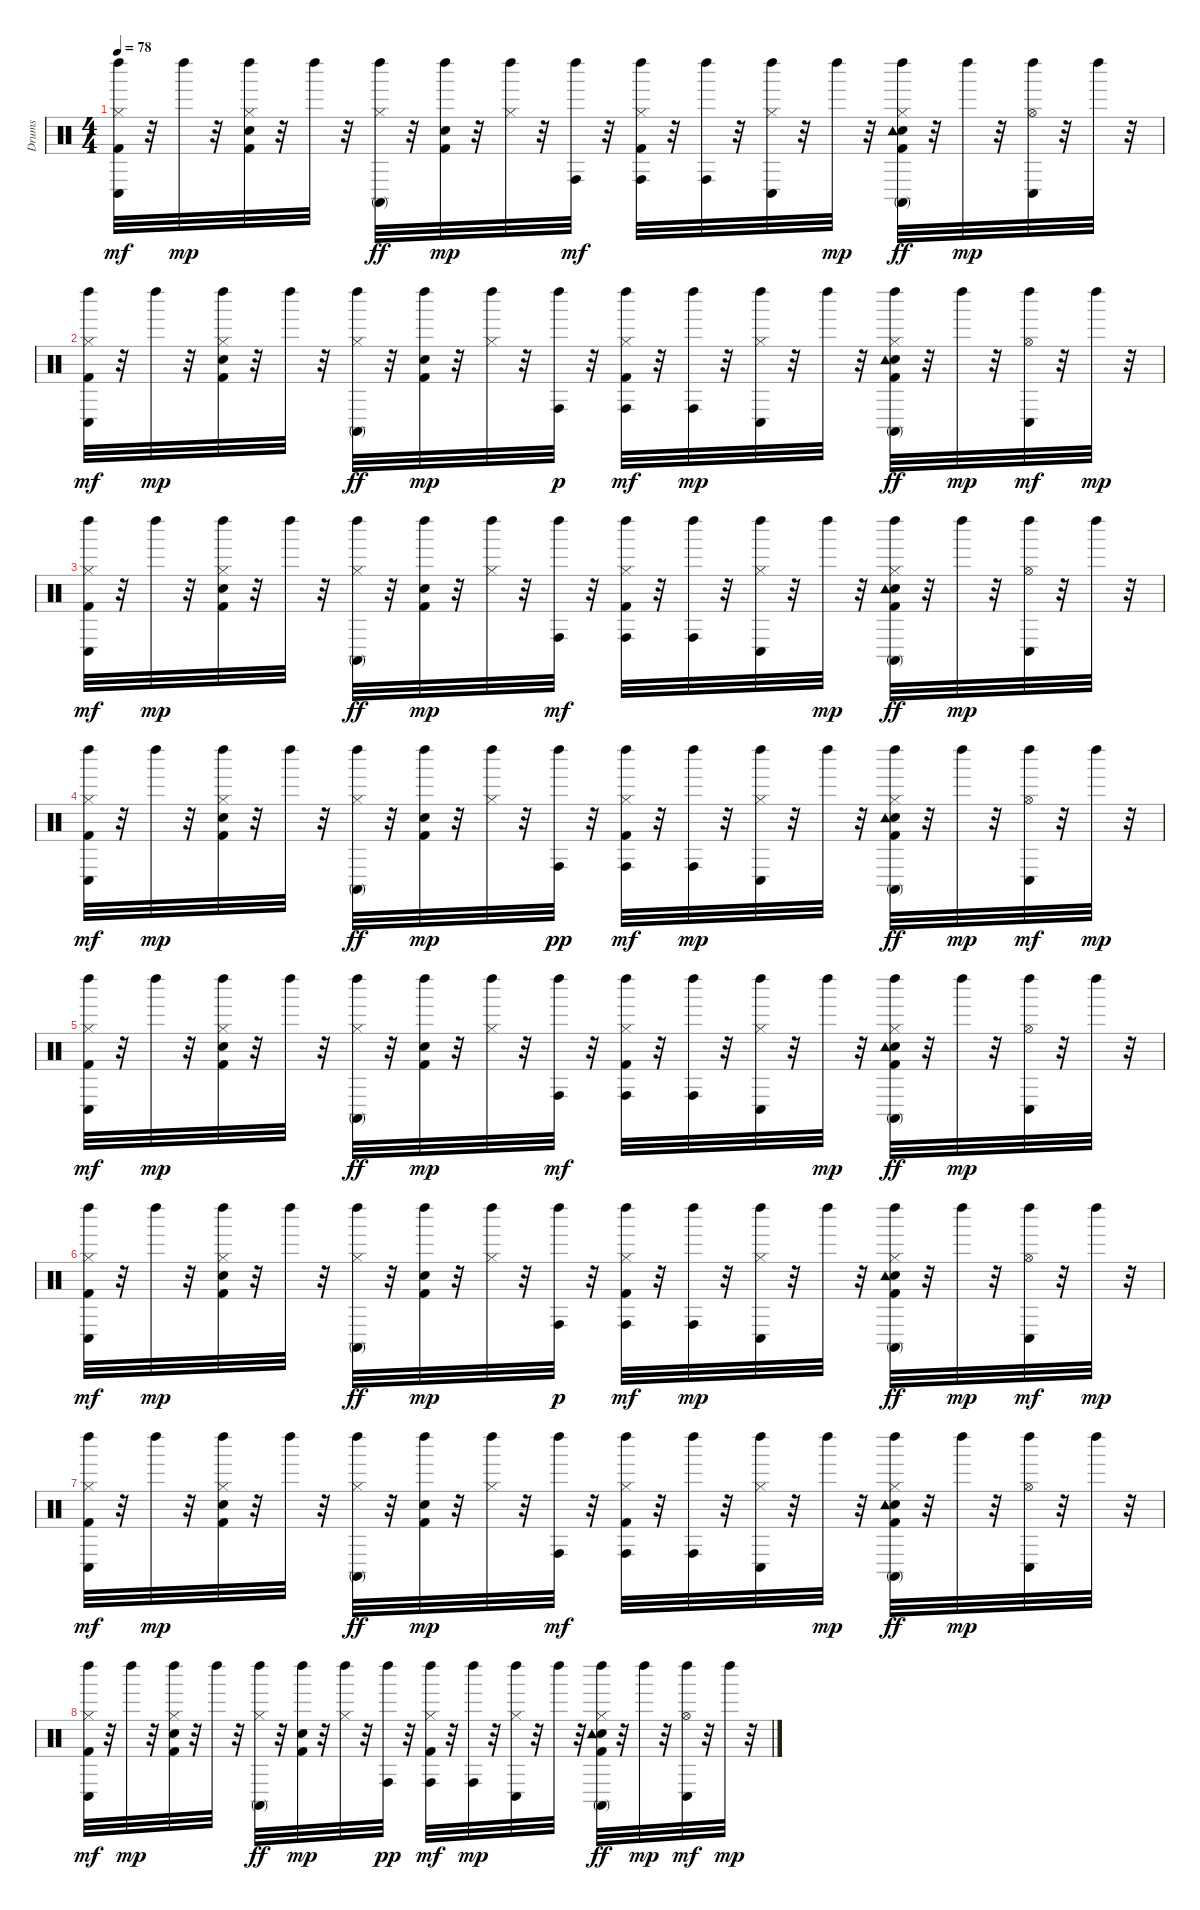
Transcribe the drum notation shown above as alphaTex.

\track ("Drums               " "Drums     ") {instrument percussion}
\staff {score}
\articulation defaults
\ts (4 4)
\tempo 78
\clef neutral
\ks c
("Kick (hit) 2" "Hi-Hat (closed)" "Left Maraca (hit)" "Conga low (hit)").32{dy mf} r.32 "Left Maraca (hit)".32{dy mp} r.32 ("Kick (hit) 2" "Snare (hit) 2" "Hi-Hat (closed)" "Left Maraca (hit)").32 r.32 "Left Maraca (hit)".32 r.32 ("Hi-Hat (closed)" "Left Maraca (hit)" "Conga high (mute)").32{dy ff} r.32 ("Kick (hit) 2" "Snare (hit) 2" "Left Maraca (hit)").32{dy mp} r.32 ("Hi-Hat (closed)" "Left Maraca (hit)").32 r.32 ("Left Maraca (hit)" "Conga high (hit)").32{dy mf} r.32 ("Kick (hit) 2" "Hi-Hat (closed)" "Left Maraca (hit)" "Conga high (hit)").32 r.32 ("Left Maraca (hit)" "Conga high (hit)").32 r.32 ("Hi-Hat (closed)" "Left Maraca (hit)" "Conga low (hit)").32 r.32 "Left Maraca (hit)".32{dy mp} r.32 ("Kick (hit) 2" "Snare (hit) 2" "Hi-Hat (closed)" "Left Maraca (hit)" "Conga high (mute)" "Tambourine (hit)").32{dy ff} r.32 "Left Maraca (hit)".32{dy mp} r.32 ("Hi-Hat (open)" "Left Maraca (hit)" "Conga low (hit)").32 r.32 "Left Maraca (hit)".32 r.32 |
("Kick (hit) 2" "Hi-Hat (closed)" "Left Maraca (hit)" "Conga low (hit)").32{dy mf} r.32 "Left Maraca (hit)".32{dy mp} r.32 ("Kick (hit) 2" "Snare (hit) 2" "Hi-Hat (closed)" "Left Maraca (hit)").32 r.32 "Left Maraca (hit)".32 r.32 ("Hi-Hat (closed)" "Left Maraca (hit)" "Conga high (mute)").32{dy ff} r.32 ("Kick (hit) 2" "Snare (hit) 2" "Left Maraca (hit)").32{dy mp} r.32 ("Hi-Hat (closed)" "Left Maraca (hit)").32 r.32 ("Left Maraca (hit)" "Conga high (hit)").32{dy p} r.32 ("Kick (hit) 2" "Hi-Hat (closed)" "Left Maraca (hit)" "Conga high (hit)").32{dy mf} r.32 ("Left Maraca (hit)" "Conga high (hit)").32{dy mp} r.32 ("Hi-Hat (closed)" "Left Maraca (hit)" "Conga low (hit)").32 r.32 "Left Maraca (hit)".32 r.32 ("Kick (hit) 2" "Snare (hit) 2" "Hi-Hat (closed)" "Left Maraca (hit)" "Conga high (mute)" "Tambourine (hit)").32{dy ff} r.32 "Left Maraca (hit)".32{dy mp} r.32 ("Hi-Hat (open)" "Left Maraca (hit)" "Conga low (hit)").32{dy mf} r.32 "Left Maraca (hit)".32{dy mp} r.32 |
("Kick (hit) 2" "Hi-Hat (closed)" "Left Maraca (hit)" "Conga low (hit)").32{dy mf} r.32 "Left Maraca (hit)".32{dy mp} r.32 ("Kick (hit) 2" "Snare (hit) 2" "Hi-Hat (closed)" "Left Maraca (hit)").32 r.32 "Left Maraca (hit)".32 r.32 ("Hi-Hat (closed)" "Left Maraca (hit)" "Conga high (mute)").32{dy ff} r.32 ("Kick (hit) 2" "Snare (hit) 2" "Left Maraca (hit)").32{dy mp} r.32 ("Hi-Hat (closed)" "Left Maraca (hit)").32 r.32 ("Left Maraca (hit)" "Conga high (hit)").32{dy mf} r.32 ("Kick (hit) 2" "Hi-Hat (closed)" "Left Maraca (hit)" "Conga high (hit)").32 r.32 ("Left Maraca (hit)" "Conga high (hit)").32 r.32 ("Hi-Hat (closed)" "Left Maraca (hit)" "Conga low (hit)").32 r.32 "Left Maraca (hit)".32{dy mp} r.32 ("Kick (hit) 2" "Snare (hit) 2" "Hi-Hat (closed)" "Left Maraca (hit)" "Conga high (mute)" "Tambourine (hit)").32{dy ff} r.32 "Left Maraca (hit)".32{dy mp} r.32 ("Hi-Hat (open)" "Left Maraca (hit)" "Conga low (hit)").32 r.32 "Left Maraca (hit)".32 r.32 |
("Kick (hit) 2" "Hi-Hat (closed)" "Left Maraca (hit)" "Conga low (hit)").32{dy mf} r.32 "Left Maraca (hit)".32{dy mp} r.32 ("Kick (hit) 2" "Snare (hit) 2" "Hi-Hat (closed)" "Left Maraca (hit)").32 r.32 "Left Maraca (hit)".32 r.32 ("Hi-Hat (closed)" "Left Maraca (hit)" "Conga high (mute)").32{dy ff} r.32 ("Kick (hit) 2" "Snare (hit) 2" "Left Maraca (hit)").32{dy mp} r.32 ("Hi-Hat (closed)" "Left Maraca (hit)").32 r.32 ("Left Maraca (hit)" "Conga high (hit)").32{dy pp} r.32 ("Kick (hit) 2" "Hi-Hat (closed)" "Left Maraca (hit)" "Conga high (hit)").32{dy mf} r.32 ("Left Maraca (hit)" "Conga high (hit)").32{dy mp} r.32 ("Hi-Hat (closed)" "Left Maraca (hit)" "Conga low (hit)").32 r.32 "Left Maraca (hit)".32 r.32 ("Kick (hit) 2" "Snare (hit) 2" "Hi-Hat (closed)" "Left Maraca (hit)" "Conga high (mute)" "Tambourine (hit)").32{dy ff} r.32 "Left Maraca (hit)".32{dy mp} r.32 ("Hi-Hat (open)" "Left Maraca (hit)" "Conga low (hit)").32{dy mf} r.32 "Left Maraca (hit)".32{dy mp} r.32 |
("Kick (hit) 2" "Hi-Hat (closed)" "Left Maraca (hit)" "Conga low (hit)").32{dy mf} r.32 "Left Maraca (hit)".32{dy mp} r.32 ("Kick (hit) 2" "Snare (hit) 2" "Hi-Hat (closed)" "Left Maraca (hit)").32 r.32 "Left Maraca (hit)".32 r.32 ("Hi-Hat (closed)" "Left Maraca (hit)" "Conga high (mute)").32{dy ff} r.32 ("Kick (hit) 2" "Snare (hit) 2" "Left Maraca (hit)").32{dy mp} r.32 ("Hi-Hat (closed)" "Left Maraca (hit)").32 r.32 ("Left Maraca (hit)" "Conga high (hit)").32{dy mf} r.32 ("Kick (hit) 2" "Hi-Hat (closed)" "Left Maraca (hit)" "Conga high (hit)").32 r.32 ("Left Maraca (hit)" "Conga high (hit)").32 r.32 ("Hi-Hat (closed)" "Left Maraca (hit)" "Conga low (hit)").32 r.32 "Left Maraca (hit)".32{dy mp} r.32 ("Kick (hit) 2" "Snare (hit) 2" "Hi-Hat (closed)" "Left Maraca (hit)" "Conga high (mute)" "Tambourine (hit)").32{dy ff} r.32 "Left Maraca (hit)".32{dy mp} r.32 ("Hi-Hat (open)" "Left Maraca (hit)" "Conga low (hit)").32 r.32 "Left Maraca (hit)".32 r.32 |
("Kick (hit) 2" "Hi-Hat (closed)" "Left Maraca (hit)" "Conga low (hit)").32{dy mf} r.32 "Left Maraca (hit)".32{dy mp} r.32 ("Kick (hit) 2" "Snare (hit) 2" "Hi-Hat (closed)" "Left Maraca (hit)").32 r.32 "Left Maraca (hit)".32 r.32 ("Hi-Hat (closed)" "Left Maraca (hit)" "Conga high (mute)").32{dy ff} r.32 ("Kick (hit) 2" "Snare (hit) 2" "Left Maraca (hit)").32{dy mp} r.32 ("Hi-Hat (closed)" "Left Maraca (hit)").32 r.32 ("Left Maraca (hit)" "Conga high (hit)").32{dy p} r.32 ("Kick (hit) 2" "Hi-Hat (closed)" "Left Maraca (hit)" "Conga high (hit)").32{dy mf} r.32 ("Left Maraca (hit)" "Conga high (hit)").32{dy mp} r.32 ("Hi-Hat (closed)" "Left Maraca (hit)" "Conga low (hit)").32 r.32 "Left Maraca (hit)".32 r.32 ("Kick (hit) 2" "Snare (hit) 2" "Hi-Hat (closed)" "Left Maraca (hit)" "Conga high (mute)" "Tambourine (hit)").32{dy ff} r.32 "Left Maraca (hit)".32{dy mp} r.32 ("Hi-Hat (open)" "Left Maraca (hit)" "Conga low (hit)").32{dy mf} r.32 "Left Maraca (hit)".32{dy mp} r.32 |
("Kick (hit) 2" "Hi-Hat (closed)" "Left Maraca (hit)" "Conga low (hit)").32{dy mf} r.32 "Left Maraca (hit)".32{dy mp} r.32 ("Kick (hit) 2" "Snare (hit) 2" "Hi-Hat (closed)" "Left Maraca (hit)").32 r.32 "Left Maraca (hit)".32 r.32 ("Hi-Hat (closed)" "Left Maraca (hit)" "Conga high (mute)").32{dy ff} r.32 ("Kick (hit) 2" "Snare (hit) 2" "Left Maraca (hit)").32{dy mp} r.32 ("Hi-Hat (closed)" "Left Maraca (hit)").32 r.32 ("Left Maraca (hit)" "Conga high (hit)").32{dy mf} r.32 ("Kick (hit) 2" "Hi-Hat (closed)" "Left Maraca (hit)" "Conga high (hit)").32 r.32 ("Left Maraca (hit)" "Conga high (hit)").32 r.32 ("Hi-Hat (closed)" "Left Maraca (hit)" "Conga low (hit)").32 r.32 "Left Maraca (hit)".32{dy mp} r.32 ("Kick (hit) 2" "Snare (hit) 2" "Hi-Hat (closed)" "Left Maraca (hit)" "Conga high (mute)" "Tambourine (hit)").32{dy ff} r.32 "Left Maraca (hit)".32{dy mp} r.32 ("Hi-Hat (open)" "Left Maraca (hit)" "Conga low (hit)").32 r.32 "Left Maraca (hit)".32 r.32 |
("Kick (hit) 2" "Hi-Hat (closed)" "Left Maraca (hit)" "Conga low (hit)").32{dy mf} r.32 "Left Maraca (hit)".32{dy mp} r.32 ("Kick (hit) 2" "Snare (hit) 2" "Hi-Hat (closed)" "Left Maraca (hit)").32 r.32 "Left Maraca (hit)".32 r.32 ("Hi-Hat (closed)" "Left Maraca (hit)" "Conga high (mute)").32{dy ff} r.32 ("Kick (hit) 2" "Snare (hit) 2" "Left Maraca (hit)").32{dy mp} r.32 ("Hi-Hat (closed)" "Left Maraca (hit)").32 r.32 ("Left Maraca (hit)" "Conga high (hit)").32{dy pp} r.32 ("Kick (hit) 2" "Hi-Hat (closed)" "Left Maraca (hit)" "Conga high (hit)").32{dy mf} r.32 ("Left Maraca (hit)" "Conga high (hit)").32{dy mp} r.32 ("Hi-Hat (closed)" "Left Maraca (hit)" "Conga low (hit)").32 r.32 "Left Maraca (hit)".32 r.32 ("Kick (hit) 2" "Snare (hit) 2" "Hi-Hat (closed)" "Left Maraca (hit)" "Conga high (mute)" "Tambourine (hit)").32{dy ff} r.32 "Left Maraca (hit)".32{dy mp} r.32 ("Hi-Hat (open)" "Left Maraca (hit)" "Conga low (hit)").32{dy mf} r.32 "Left Maraca (hit)".32{dy mp} r.32
